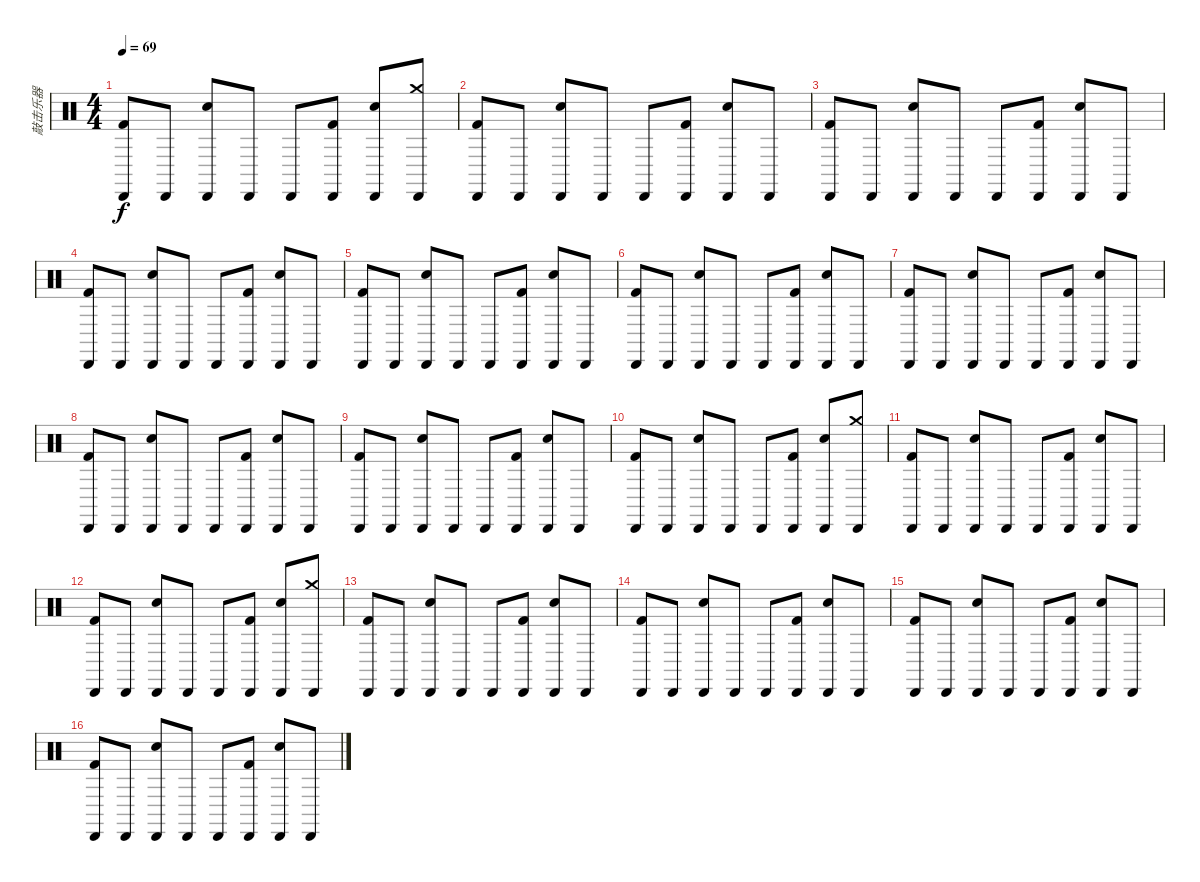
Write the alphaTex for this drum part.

\track ("敲击乐器" "敲击乐器") {instrument percussion}
\staff {score}
\articulation defaults
\ts (4 4)
\tempo 69
\clef neutral
\ks c
("Cabasa (hit)" "Kick (hit) 2").8{dy f} "Cabasa (hit)".8 ("Cabasa (hit)" "Electric Snare (hit)").8 "Cabasa (hit)".8 "Cabasa (hit)".8 ("Cabasa (hit)" "Kick (hit) 2").8 ("Cabasa (hit)" "Electric Snare (hit)").8 ("Cabasa (hit)" "Crash medium (hit)").8 |
("Cabasa (hit)" "Kick (hit) 2").8 "Cabasa (hit)".8 ("Cabasa (hit)" "Electric Snare (hit)").8 "Cabasa (hit)".8 "Cabasa (hit)".8 ("Cabasa (hit)" "Kick (hit) 2").8 ("Cabasa (hit)" "Electric Snare (hit)").8 "Cabasa (hit)".8 |
("Cabasa (hit)" "Kick (hit) 2").8 "Cabasa (hit)".8 ("Cabasa (hit)" "Electric Snare (hit)").8 "Cabasa (hit)".8 "Cabasa (hit)".8 ("Cabasa (hit)" "Kick (hit) 2").8 ("Cabasa (hit)" "Electric Snare (hit)").8 "Cabasa (hit)".8 |
("Cabasa (hit)" "Kick (hit) 2").8 "Cabasa (hit)".8 ("Cabasa (hit)" "Electric Snare (hit)").8 "Cabasa (hit)".8 "Cabasa (hit)".8 ("Cabasa (hit)" "Kick (hit) 2").8 ("Cabasa (hit)" "Electric Snare (hit)").8 "Cabasa (hit)".8 |
("Cabasa (hit)" "Kick (hit) 2").8 "Cabasa (hit)".8 ("Cabasa (hit)" "Electric Snare (hit)").8 "Cabasa (hit)".8 "Cabasa (hit)".8 ("Cabasa (hit)" "Kick (hit) 2").8 ("Cabasa (hit)" "Electric Snare (hit)").8 "Cabasa (hit)".8 |
("Cabasa (hit)" "Kick (hit) 2").8 "Cabasa (hit)".8 ("Cabasa (hit)" "Electric Snare (hit)").8 "Cabasa (hit)".8 "Cabasa (hit)".8 ("Cabasa (hit)" "Kick (hit) 2").8 ("Cabasa (hit)" "Electric Snare (hit)").8 "Cabasa (hit)".8 |
("Cabasa (hit)" "Kick (hit) 2").8 "Cabasa (hit)".8 ("Cabasa (hit)" "Electric Snare (hit)").8 "Cabasa (hit)".8 "Cabasa (hit)".8 ("Cabasa (hit)" "Kick (hit) 2").8 ("Cabasa (hit)" "Electric Snare (hit)").8 "Cabasa (hit)".8 |
("Cabasa (hit)" "Kick (hit) 2").8 "Cabasa (hit)".8 ("Cabasa (hit)" "Electric Snare (hit)").8 "Cabasa (hit)".8 "Cabasa (hit)".8 ("Cabasa (hit)" "Kick (hit) 2").8 ("Cabasa (hit)" "Electric Snare (hit)").8 "Cabasa (hit)".8 |
("Cabasa (hit)" "Kick (hit) 2").8 "Cabasa (hit)".8 ("Cabasa (hit)" "Electric Snare (hit)").8 "Cabasa (hit)".8 "Cabasa (hit)".8 ("Cabasa (hit)" "Kick (hit) 2").8 ("Cabasa (hit)" "Electric Snare (hit)").8 "Cabasa (hit)".8 |
("Cabasa (hit)" "Kick (hit) 2").8 "Cabasa (hit)".8 ("Cabasa (hit)" "Electric Snare (hit)").8 "Cabasa (hit)".8 "Cabasa (hit)".8 ("Cabasa (hit)" "Kick (hit) 2").8 ("Cabasa (hit)" "Electric Snare (hit)").8 ("Cabasa (hit)" "Crash medium (hit)").8 |
("Cabasa (hit)" "Kick (hit) 2").8 "Cabasa (hit)".8 ("Cabasa (hit)" "Electric Snare (hit)").8 "Cabasa (hit)".8 "Cabasa (hit)".8 ("Cabasa (hit)" "Kick (hit) 2").8 ("Cabasa (hit)" "Electric Snare (hit)").8 "Cabasa (hit)".8 |
("Cabasa (hit)" "Kick (hit) 2").8 "Cabasa (hit)".8 ("Cabasa (hit)" "Electric Snare (hit)").8 "Cabasa (hit)".8 "Cabasa (hit)".8 ("Cabasa (hit)" "Kick (hit) 2").8 ("Cabasa (hit)" "Electric Snare (hit)").8 ("Cabasa (hit)" "Crash medium (hit)").8 |
("Cabasa (hit)" "Kick (hit) 2").8 "Cabasa (hit)".8 ("Cabasa (hit)" "Electric Snare (hit)").8 "Cabasa (hit)".8 "Cabasa (hit)".8 ("Cabasa (hit)" "Kick (hit) 2").8 ("Cabasa (hit)" "Electric Snare (hit)").8 "Cabasa (hit)".8 |
("Cabasa (hit)" "Kick (hit) 2").8 "Cabasa (hit)".8 ("Cabasa (hit)" "Electric Snare (hit)").8 "Cabasa (hit)".8 "Cabasa (hit)".8 ("Cabasa (hit)" "Kick (hit) 2").8 ("Cabasa (hit)" "Electric Snare (hit)").8 "Cabasa (hit)".8 |
("Cabasa (hit)" "Kick (hit) 2").8 "Cabasa (hit)".8 ("Cabasa (hit)" "Electric Snare (hit)").8 "Cabasa (hit)".8 "Cabasa (hit)".8 ("Cabasa (hit)" "Kick (hit) 2").8 ("Cabasa (hit)" "Electric Snare (hit)").8 "Cabasa (hit)".8 |
("Cabasa (hit)" "Kick (hit) 2").8 "Cabasa (hit)".8 ("Cabasa (hit)" "Electric Snare (hit)").8 "Cabasa (hit)".8 "Cabasa (hit)".8 ("Cabasa (hit)" "Kick (hit) 2").8 ("Cabasa (hit)" "Electric Snare (hit)").8 "Cabasa (hit)".8
